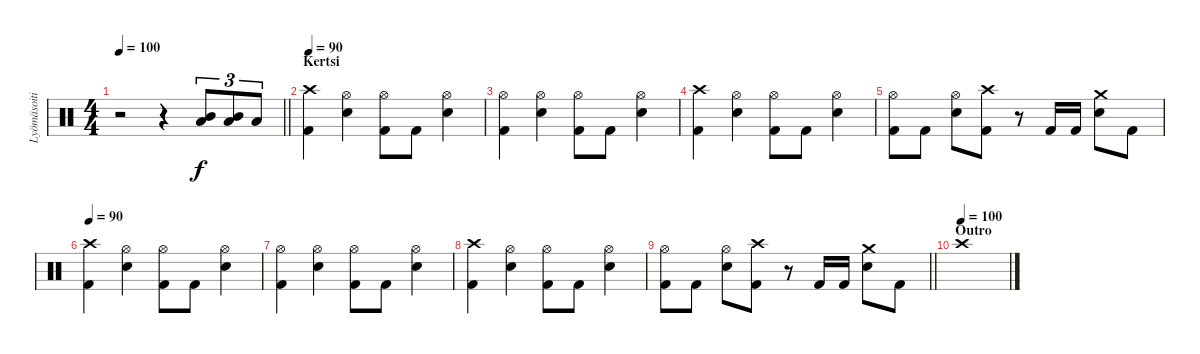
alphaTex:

\track ("Lyömäsoitin" "Lyömäsoiti") {instrument percussion}
\staff {score}
\articulation defaults
\ts (4 4)
\tempo 100
\clef neutral
\barLineRight lightlight
\ks c
r.2{dy f} r.4 ("Mid Tom (hit)" "Low Tom (hit)").8{tu (3 2)} ("Mid Tom (hit)" "Low Tom (hit)").8{tu (3 2)} "Low Floor Tom (hit)".8{tu (3 2)} |
\section ("" "Kertsi")
\tempo 90
("Crash high (hit)" "Kick (hit) 2").4 ("Hi-Hat (open)" "Snare (hit) 2").4 ("Hi-Hat (open)" "Kick (hit) 2").8 "Kick (hit) 2".8 ("Hi-Hat (open)" "Snare (hit) 2").4 |
("Hi-Hat (open)" "Kick (hit) 2").4 ("Hi-Hat (open)" "Snare (hit) 2").4 ("Hi-Hat (open)" "Kick (hit) 2").8 "Kick (hit) 2".8 ("Hi-Hat (open)" "Snare (hit) 2").4 |
("Crash high (hit)" "Kick (hit) 2").4 ("Hi-Hat (open)" "Snare (hit) 2").4 ("Hi-Hat (open)" "Kick (hit) 2").8 "Kick (hit) 2".8 ("Hi-Hat (open)" "Snare (hit) 2").4 |
("Hi-Hat (open)" "Kick (hit) 2").8 "Kick (hit) 2".8 ("Hi-Hat (open)" "Snare (hit) 2").8 ("Crash high (hit)" "Kick (hit) 2").8 r.8 "Kick (hit) 2".16 "Kick (hit) 2".16 ("Crash medium (hit)" "Snare (hit) 2").8 "Kick (hit) 2".8 |
\tempo 90
("Crash high (hit)" "Kick (hit) 2").4 ("Hi-Hat (open)" "Snare (hit) 2").4 ("Hi-Hat (open)" "Kick (hit) 2").8 "Kick (hit) 2".8 ("Hi-Hat (open)" "Snare (hit) 2").4 |
("Hi-Hat (open)" "Kick (hit) 2").4 ("Hi-Hat (open)" "Snare (hit) 2").4 ("Hi-Hat (open)" "Kick (hit) 2").8 "Kick (hit) 2".8 ("Hi-Hat (open)" "Snare (hit) 2").4 |
("Crash high (hit)" "Kick (hit) 2").4 ("Hi-Hat (open)" "Snare (hit) 2").4 ("Hi-Hat (open)" "Kick (hit) 2").8 "Kick (hit) 2".8 ("Hi-Hat (open)" "Snare (hit) 2").4 |
\barLineRight lightlight
("Hi-Hat (open)" "Kick (hit) 2").8 "Kick (hit) 2".8 ("Hi-Hat (open)" "Snare (hit) 2").8 ("Crash high (hit)" "Kick (hit) 2").8 r.8 "Kick (hit) 2".16 "Kick (hit) 2".16 ("Crash medium (hit)" "Snare (hit) 2").8 "Kick (hit) 2".8 |
\section ("" "Outro")
\tempo (100)
"Crash high (hit)".1
